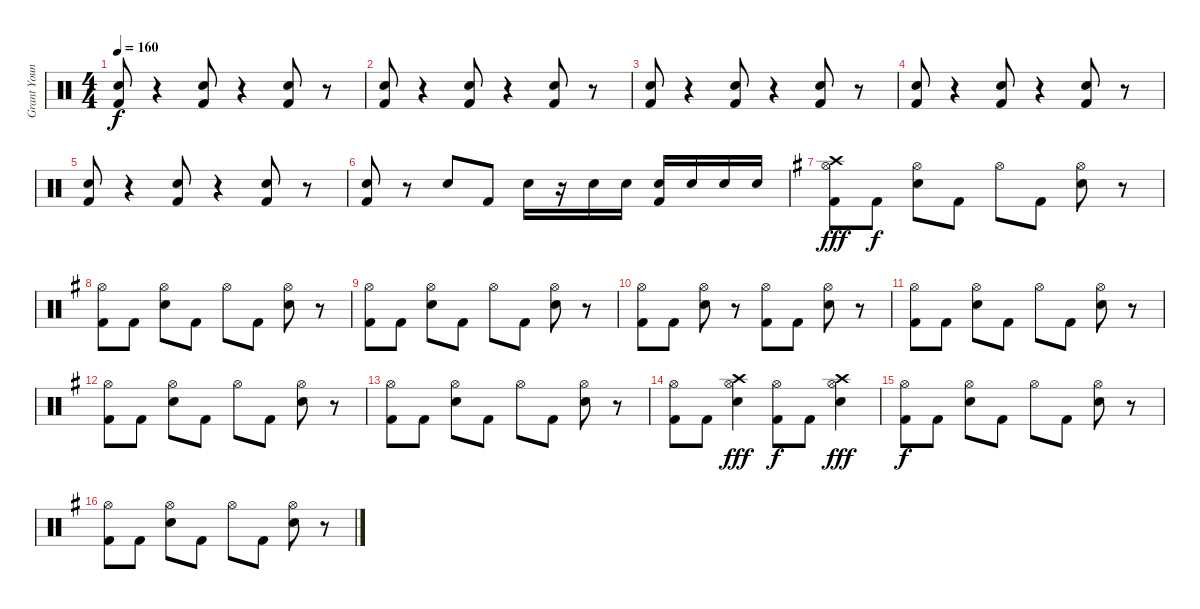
\track ("Grant Young" "Grant Youn") {instrument percussion}
\staff {score}
\articulation defaults
\ts (4 4)
\tempo 160
\clef neutral
\ks c
("Kick (hit) 2" "Snare (hit) 2").8{dy f} r.4 ("Kick (hit) 2" "Snare (hit) 2").8 r.4 ("Kick (hit) 2" "Snare (hit) 2").8 r.8 |
("Kick (hit) 2" "Snare (hit) 2").8 r.4 ("Kick (hit) 2" "Snare (hit) 2").8 r.4 ("Kick (hit) 2" "Snare (hit) 2").8 r.8 |
("Kick (hit) 2" "Snare (hit) 2").8 r.4 ("Kick (hit) 2" "Snare (hit) 2").8 r.4 ("Kick (hit) 2" "Snare (hit) 2").8 r.8 |
("Kick (hit) 2" "Snare (hit) 2").8 r.4 ("Kick (hit) 2" "Snare (hit) 2").8 r.4 ("Kick (hit) 2" "Snare (hit) 2").8 r.8 |
("Kick (hit) 2" "Snare (hit) 2").8 r.4 ("Kick (hit) 2" "Snare (hit) 2").8 r.4 ("Kick (hit) 2" "Snare (hit) 2").8 r.8 |
("Kick (hit) 2" "Snare (hit) 2").8 r.8 "Snare (hit) 2".8 "Kick (hit) 2".8 "Snare (hit) 2".16 r.16 "Snare (hit) 2".16 "Snare (hit) 2".16 ("Snare (hit) 2" "Kick (hit) 2").16 "Snare (hit) 2".16 "Snare (hit) 2".16 "Snare (hit) 2".16 |
\ks g
("Crash high (hit)" "Hi-Hat (open)" "Kick (hit) 2").8{dy fff} "Kick (hit) 2".8{dy f} ("Hi-Hat (open)" "Snare (hit) 2").8 "Kick (hit) 2".8 "Hi-Hat (open)".8 "Kick (hit) 2".8 ("Hi-Hat (open)" "Snare (hit) 2").8 r.8 |
("Hi-Hat (open)" "Kick (hit) 2").8 "Kick (hit) 2".8 ("Hi-Hat (open)" "Snare (hit) 2").8 "Kick (hit) 2".8 "Hi-Hat (open)".8 "Kick (hit) 2".8 ("Hi-Hat (open)" "Snare (hit) 2").8 r.8 |
("Hi-Hat (open)" "Kick (hit) 2").8 "Kick (hit) 2".8 ("Hi-Hat (open)" "Snare (hit) 2").8 "Kick (hit) 2".8 "Hi-Hat (open)".8 "Kick (hit) 2".8 ("Hi-Hat (open)" "Snare (hit) 2").8 r.8 |
("Hi-Hat (open)" "Kick (hit) 2").8 "Kick (hit) 2".8 ("Hi-Hat (open)" "Snare (hit) 2").8 r.8 ("Kick (hit) 2" "Hi-Hat (open)").8 "Kick (hit) 2".8 ("Hi-Hat (open)" "Snare (hit) 2").8 r.8 |
("Hi-Hat (open)" "Kick (hit) 2").8 "Kick (hit) 2".8 ("Hi-Hat (open)" "Snare (hit) 2").8 "Kick (hit) 2".8 "Hi-Hat (open)".8 "Kick (hit) 2".8 ("Hi-Hat (open)" "Snare (hit) 2").8 r.8 |
("Hi-Hat (open)" "Kick (hit) 2").8 "Kick (hit) 2".8 ("Hi-Hat (open)" "Snare (hit) 2").8 "Kick (hit) 2".8 "Hi-Hat (open)".8 "Kick (hit) 2".8 ("Hi-Hat (open)" "Snare (hit) 2").8 r.8 |
("Hi-Hat (open)" "Kick (hit) 2").8 "Kick (hit) 2".8 ("Hi-Hat (open)" "Snare (hit) 2").8 "Kick (hit) 2".8 "Hi-Hat (open)".8 "Kick (hit) 2".8 ("Hi-Hat (open)" "Snare (hit) 2").8 r.8 |
("Hi-Hat (open)" "Kick (hit) 2").8 "Kick (hit) 2".8 ("Crash high (hit)" "Hi-Hat (open)" "Snare (hit) 2").4{dy fff} ("Kick (hit) 2" "Hi-Hat (open)").8{dy f} "Kick (hit) 2".8 ("Crash high (hit)" "Hi-Hat (open)" "Snare (hit) 2").4{dy fff} |
("Hi-Hat (open)" "Kick (hit) 2").8{dy f} "Kick (hit) 2".8 ("Hi-Hat (open)" "Snare (hit) 2").8 "Kick (hit) 2".8 "Hi-Hat (open)".8 "Kick (hit) 2".8 ("Hi-Hat (open)" "Snare (hit) 2").8 r.8 |
("Hi-Hat (open)" "Kick (hit) 2").8 "Kick (hit) 2".8 ("Hi-Hat (open)" "Snare (hit) 2").8 "Kick (hit) 2".8 "Hi-Hat (open)".8 "Kick (hit) 2".8 ("Hi-Hat (open)" "Snare (hit) 2").8 r.8
